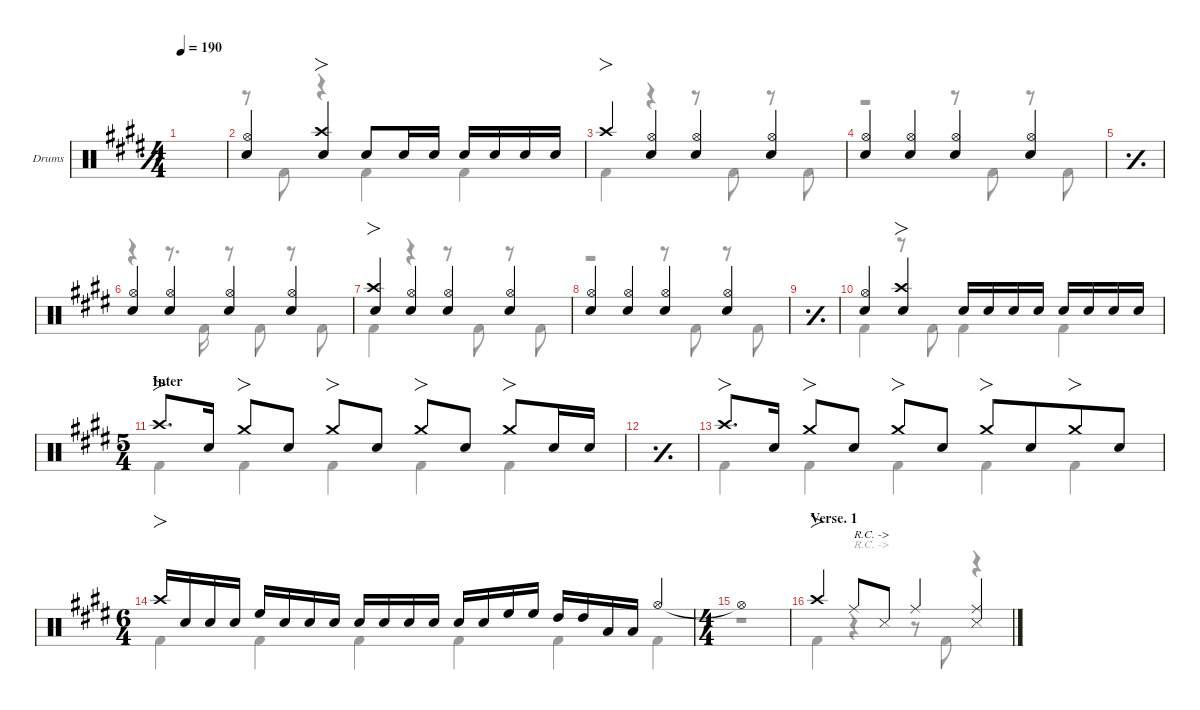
\defaultSystemsLayout 4
\hideDynamics
\bracketExtendMode nobrackets
\firstSystemTrackNameOrientation horizontal
\track ("Drums" "Drums") {defaultSystemsLayout 4 instrument percussion}
\staff {score}
\articulation defaults
\voice
\ts (4 4)
\tempo 190
\clef neutral
\simile simple
\scale
0.24446
\ks e
|
\simile none
\scale
0.244461 ("Hi-Hat (open)"{acc forcenatural} "Snare (hit) 2"{acc forcenatural}).4{beam Up} ("Snare (hit) 2"{acc forcenatural} "Crash high (hit)"{acc forcenatural}).4{fo beam Up} "Snare (hit) 2"{acc forcenatural}.8{beam Up} "Snare (hit) 2"{acc forcenatural}.16{beam Up} "Snare (hit) 2"{acc forcenatural}.16{dy mf beam Up beam split} "Snare (hit) 2"{acc forcenatural}.16{dy f beam Up} "Snare (hit) 2"{acc forcenatural}.16{dy mf beam Up beam merge} "Snare (hit) 2"{acc forcenatural}.16{dy f beam Up} "Snare (hit) 2"{acc forcenatural}.16{dy mf beam Up beam split} |
\scale
0.266618 "Crash high (hit)"{acc forcenatural}.4{fo dy f beam Up} ("Snare (hit) 2"{acc forcenatural} "Hi-Hat (open)"{acc forcenatural}).4{beam Up} ("Snare (hit) 2"{acc forcenatural} "Hi-Hat (open)"{acc forcenatural}).4{beam Up} ("Snare (hit) 2"{acc forcenatural} "Hi-Hat (open)"{acc forcenatural}).4{beam Up} |
\scale
0.244461 ("Snare (hit) 2"{acc forcenatural} "Hi-Hat (open)"{acc forcenatural}).4{beam Up} ("Snare (hit) 2"{acc forcenatural} "Hi-Hat (open)"{acc forcenatural}).4{beam Up} ("Snare (hit) 2"{acc forcenatural} "Hi-Hat (open)"{acc forcenatural}).4{beam Up} ("Snare (hit) 2"{acc forcenatural} "Hi-Hat (open)"{acc forcenatural}).4{beam Up} |
\simile simple
\scale
0.24446 |
\simile none
\scale
0.244461 ("Snare (hit) 2"{acc forcenatural} "Hi-Hat (open)"{acc forcenatural}).4{beam Up} ("Snare (hit) 2"{acc forcenatural} "Hi-Hat (open)"{acc forcenatural}).4{beam Up} ("Snare (hit) 2"{acc forcenatural} "Hi-Hat (open)"{acc forcenatural}).4{beam Up} ("Snare (hit) 2"{acc forcenatural} "Hi-Hat (open)"{acc forcenatural}).4{beam Up} |
\scale
0.266618 ("Crash high (hit)"{acc forcenatural} "Snare (hit) 2"{acc forcenatural}).4{fo beam Up} ("Snare (hit) 2"{acc forcenatural} "Hi-Hat (open)"{acc forcenatural}).4{beam Up} ("Snare (hit) 2"{acc forcenatural} "Hi-Hat (open)"{acc forcenatural}).4{beam Up} ("Snare (hit) 2"{acc forcenatural} "Hi-Hat (open)"{acc forcenatural}).4{beam Up} |
\scale
0.24446 ("Snare (hit) 2"{acc forcenatural} "Hi-Hat (open)"{acc forcenatural}).4{beam Up} ("Snare (hit) 2"{acc forcenatural} "Hi-Hat (open)"{acc forcenatural}).4{beam Up} ("Snare (hit) 2"{acc forcenatural} "Hi-Hat (open)"{acc forcenatural}).4{beam Up} ("Snare (hit) 2"{acc forcenatural} "Hi-Hat (open)"{acc forcenatural}).4{beam Up} |
\simile simple
\scale
0.24446 |
\simile none
\scale
0.244461 ("Snare (hit) 2"{acc forcenatural} "Hi-Hat (open)"{acc forcenatural}).4{beam Up} ("Snare (hit) 2"{acc forcenatural} "Crash high (hit)"{acc forcenatural}).4{fo beam Up} "Snare (hit) 2"{acc forcenatural}.16{beam Up} "Snare (hit) 2"{acc forcenatural}.16{dy mf beam Up beam merge} "Snare (hit) 2"{acc forcenatural}.16{dy f beam Up} "Snare (hit) 2"{acc forcenatural}.16{dy mf beam Up beam split} "Snare (hit) 2"{acc forcenatural}.16{dy f beam Up} "Snare (hit) 2"{acc forcenatural}.16{dy mf beam Up beam merge} "Snare (hit) 2"{acc forcenatural}.16{dy f beam Up} "Snare (hit) 2"{acc forcenatural}.16{dy mf beam Up beam split} |
\ts (5 4)
\beaming (8 6 4)
\section ("" "Inter")
\scale
0.348105 "Crash high (hit)"{acc forcenatural}.8{fo d dy f beam Up} "Snare (hit) 2"{acc forcenatural}.16{beam Up beam split} "Crash medium (hit)"{acc forcenatural}.8{fo beam Up} "Snare (hit) 2"{acc forcenatural}.8{beam Up beam split} "Crash medium (hit)"{acc forcenatural}.8{fo beam Up} "Snare (hit) 2"{acc forcenatural}.8{beam Up} "Crash medium (hit)"{acc forcenatural}.8{fo beam Up} "Snare (hit) 2"{acc forcenatural}.8{beam Up beam split} "Crash medium (hit)"{acc forcenatural}.8{fo beam Up} "Snare (hit) 2"{acc forcenatural}.16{beam Up} "Snare (hit) 2"{acc forcenatural}.16{dy mf beam Up} |
\simile simple
\scale
0.325948 |
\simile none
\scale
0.325947 "Crash high (hit)"{acc forcenatural}.8{fo d dy f beam Up} "Snare (hit) 2"{acc forcenatural}.16{beam Up beam split} "Crash medium (hit)"{acc forcenatural}.8{fo beam Up beam merge} "Snare (hit) 2"{acc forcenatural}.8{beam Up beam split} "Crash medium (hit)"{acc forcenatural}.8{fo beam Up beam merge} "Snare (hit) 2"{acc forcenatural}.8{beam Up} "Crash medium (hit)"{acc forcenatural}.8{fo beam Up beam merge} "Snare (hit) 2"{acc forcenatural}.8{beam Up beam merge} "Crash medium (hit)"{acc forcenatural}.8{fo beam Up beam merge} "Snare (hit) 2"{acc forcenatural}.8{beam Up} |
\ts (6 4)
\beaming (8 6 6)
\scale
0.511079 "Crash high (hit)"{acc forcenatural}.16{fo beam Up} "Snare (hit) 2"{acc forcenatural}.16{dy mp beam Up} "Snare (hit) 2"{acc forcenatural}.16{dy mf beam Up} "Snare (hit) 2"{acc forcenatural}.16{dy mp beam Up beam split} "High Floor Tom (hit)"{acc forcenatural}.16{dy f beam Up} "Snare (hit) 2"{acc forcenatural}.16{dy mp beam Up} "Snare (hit) 2"{acc forcenatural}.16{dy mf beam Up} "Snare (hit) 2"{acc forcenatural}.16{dy mp beam Up beam split} "Snare (hit) 2"{acc forcenatural}.16{dy f beam Up} "Snare (hit) 2"{acc forcenatural}.16{dy mp beam Up} "Snare (hit) 2"{acc forcenatural}.16{dy mf beam Up} "Snare (hit) 2"{acc forcenatural}.16{dy mp beam Up beam split} "Snare (hit) 2"{acc forcenatural}.16{dy f beam Up} "Snare (hit) 2"{acc forcenatural}.16{dy mp beam Up} "High Floor Tom (hit)"{acc forcenatural}.16{dy mf beam Up} "High Floor Tom (hit)"{acc forcenatural}.16{beam Up beam split} "High Tom (hit)"{acc forcenatural}.16{beam Up} "High Tom (hit)"{acc forcenatural}.16{beam Up} "Low Tom (hit)"{acc forcenatural}.16{beam Up} "Low Tom (hit)"{acc forcenatural}.16{beam Up} "Hi-Hat (open)"{acc forcenatural}.4{dy f beam Up} |
\ts (4 4)
\beaming (8 4 4)
\scale
0.488921 "Hi-Hat (open)"{t acc forcenatural}.1{beam Up} |
\section ("" "Verse. 1")
\scale
0.266618 "Crash high (hit)"{acc forcenatural}.4{fo dy mf beam Up} "Ride (middle)"{acc forcenatural}.8{txt "R.C. ->" dy mp beam Up} "Snare (side stick) 3"{acc forcenatural}.8{dy mf beam Up} "Ride (middle)"{acc forcenatural}.4{dy mp beam Up} ("Snare (side stick) 3"{acc forcenatural} "Ride (middle)"{acc forcenatural}).4{dy mf beam Up}
\voice
\clef neutral
\ottava regular
\simile simple
\scale
0.24446
\ks e
|
\simile none
\scale
0.244461 r.8{beam Down} "Kick (hit) 2"{acc forcenatural}.8{beam Down} r.4{beam Down} "Kick (hit) 2"{acc forcenatural}.4{beam Down} "Kick (hit) 2"{acc forcenatural}.4{beam Down} |
\scale
0.266618 "Kick (hit) 2"{acc forcenatural}.4{beam Down} r.4{beam Down} r.8{beam Down} "Kick (hit) 2"{acc forcenatural}.8{beam Down} r.8{beam Down} "Kick (hit) 2"{acc forcenatural}.8{beam Down} |
\scale
0.244461 r.2{beam Down} r.8{beam Down} "Kick (hit) 2"{acc forcenatural}.8{beam Down} r.8{beam Down} "Kick (hit) 2"{acc forcenatural}.8{beam Down} |
\simile simple
\scale
0.24446 |
\simile none
\scale
0.244461 r.4{beam Down} r.8{d beam Down} "Kick (hit) 2"{acc forcenatural}.16{beam Down} r.8{beam Down} "Kick (hit) 2"{acc forcenatural}.8{beam Down} r.8{beam Down} "Kick (hit) 2"{acc forcenatural}.8{beam Down} |
\scale
0.266618 "Kick (hit) 2"{acc forcenatural}.4{beam Down} r.4{beam Down} r.8{beam Down} "Kick (hit) 2"{acc forcenatural}.8{beam Down} r.8{beam Down} "Kick (hit) 2"{acc forcenatural}.8{beam Down} |
\scale
0.24446 r.2{beam Down} r.8{beam Down} "Kick (hit) 2"{acc forcenatural}.8{beam Down} r.8{beam Down} "Kick (hit) 2"{acc forcenatural}.8{beam Down} |
\simile simple
\scale
0.24446 |
\simile none
\scale
0.244461 "Kick (hit) 2"{acc forcenatural}.4{beam Down} r.8{beam Down} "Kick (hit) 2"{acc forcenatural}.8{beam Down} "Kick (hit) 2"{acc forcenatural}.4{beam Down} "Kick (hit) 2"{acc forcenatural}.4{beam Down} |
\scale
0.348105 "Kick (hit) 2"{acc forcenatural}.4{beam Down} "Kick (hit) 2"{acc forcenatural}.4{beam Down} "Kick (hit) 2"{acc forcenatural}.4{beam Down} "Kick (hit) 2"{acc forcenatural}.4{beam Down} "Kick (hit) 2"{acc forcenatural}.4{beam Down} |
\simile simple
\scale
0.325948 |
\simile none
\scale
0.325947 "Kick (hit) 2"{acc forcenatural}.4{beam Down} "Kick (hit) 2"{acc forcenatural}.4{beam Down} "Kick (hit) 2"{acc forcenatural}.4{beam Down} "Kick (hit) 2"{acc forcenatural}.4{beam Down} "Kick (hit) 2"{acc forcenatural}.4{beam Down} |
\scale
0.511079 "Kick (hit) 2"{acc forcenatural}.4{beam Down} "Kick (hit) 2"{acc forcenatural}.4{beam Down} "Kick (hit) 2"{acc forcenatural}.4{beam Down} "Kick (hit) 2"{acc forcenatural}.4{beam Down} "Kick (hit) 2"{acc forcenatural}.4{beam Down} "Kick (hit) 2"{acc forcenatural}.4{beam Down} |
\scale
0.488921 r.1{beam Down} |
\scale
0.266618 "Kick (hit) 2"{acc forcenatural}.4{dy mf beam Down} r.4{txt "R.C. ->" beam Down} r.8{beam Down} "Kick (hit) 2"{acc forcenatural}.8{beam Down} r.4{beam Down}
